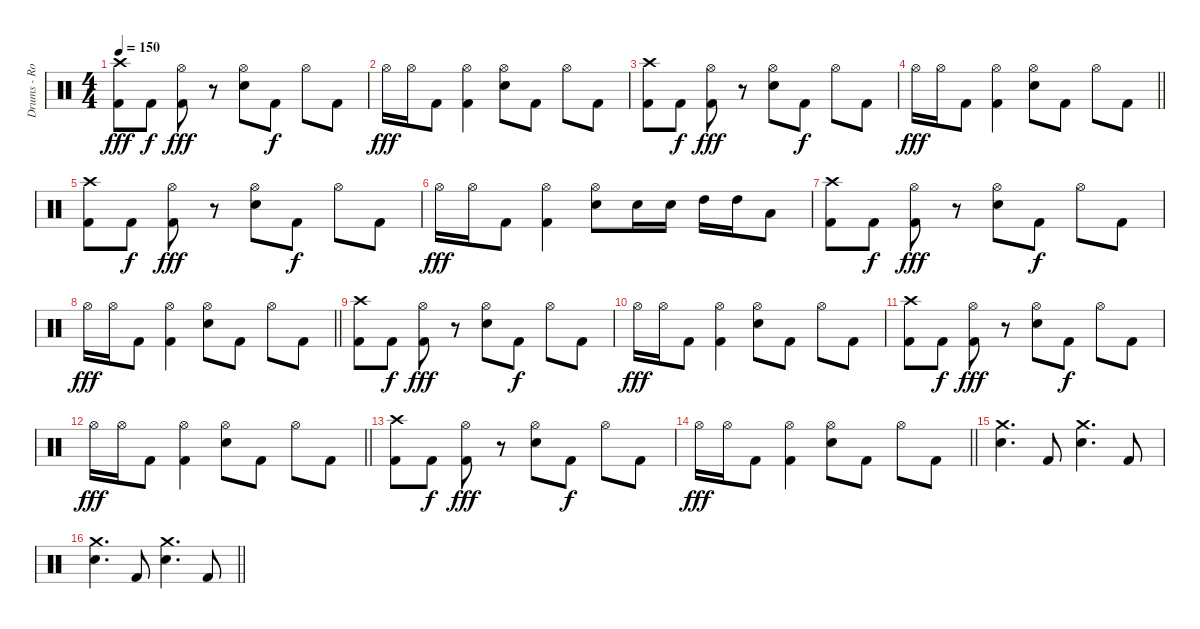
\track ("Drums - Rob Bourdon" "Drums - Ro") {instrument percussion}
\staff {score}
\articulation defaults
\ts (4 4)
\tempo 150
\clef neutral
\ks c
("Crash high (hit)" "Kick (hit) 2").8{dy fff} "Kick (hit) 2".8{dy f} ("Hi-Hat (open)" "Kick (hit) 2").8{dy fff} r.8 ("Hi-Hat (open)" "Snare (hit) 2").8 "Kick (hit) 2".8{dy f} "Hi-Hat (open)".8 "Kick (hit) 2".8 |
"Hi-Hat (open)".16{dy fff} "Hi-Hat (open)".16 "Kick (hit) 2".8 ("Hi-Hat (open)" "Kick (hit) 2").4 ("Hi-Hat (open)" "Snare (hit) 2").8 "Kick (hit) 2".8 "Hi-Hat (open)".8 "Kick (hit) 2".8 |
("Crash high (hit)" "Kick (hit) 2").8 "Kick (hit) 2".8{dy f} ("Hi-Hat (open)" "Kick (hit) 2").8{dy fff} r.8 ("Hi-Hat (open)" "Snare (hit) 2").8 "Kick (hit) 2".8{dy f} "Hi-Hat (open)".8 "Kick (hit) 2".8 |
\barLineRight lightlight "Hi-Hat (open)".16{dy fff} "Hi-Hat (open)".16 "Kick (hit) 2".8
("Hi-Hat (open)" "Kick (hit) 2").4 ("Hi-Hat (open)" "Snare (hit) 2").8 "Kick (hit) 2".8 "Hi-Hat (open)".8 "Kick (hit) 2".8 |
("Crash high (hit)" "Kick (hit) 2").8 "Kick (hit) 2".8{dy f} ("Hi-Hat (open)" "Kick (hit) 2").8{dy fff} r.8 ("Hi-Hat (open)" "Snare (hit) 2").8 "Kick (hit) 2".8{dy f} "Hi-Hat (open)".8 "Kick (hit) 2".8 |
"Hi-Hat (open)".16{dy fff} "Hi-Hat (open)".16 "Kick (hit) 2".8 ("Hi-Hat (open)" "Kick (hit) 2").4 ("Hi-Hat (open)" "Snare (hit) 2").8 "Snare (hit) 2".16 "Snare (hit) 2".16 "High Tom (hit)".16 "High Tom (hit)".16 "Low Tom (hit)".8 |
("Crash high (hit)" "Kick (hit) 2").8 "Kick (hit) 2".8{dy f} ("Hi-Hat (open)" "Kick (hit) 2").8{dy fff} r.8 ("Hi-Hat (open)" "Snare (hit) 2").8 "Kick (hit) 2".8{dy f} "Hi-Hat (open)".8 "Kick (hit) 2".8 |
\barLineRight lightlight "Hi-Hat (open)".16{dy fff} "Hi-Hat (open)".16 "Kick (hit) 2".8
("Hi-Hat (open)" "Kick (hit) 2").4 ("Hi-Hat (open)" "Snare (hit) 2").8 "Kick (hit) 2".8 "Hi-Hat (open)".8 "Kick (hit) 2".8 |
("Crash high (hit)" "Kick (hit) 2").8 "Kick (hit) 2".8{dy f} ("Hi-Hat (open)" "Kick (hit) 2").8{dy fff} r.8 ("Hi-Hat (open)" "Snare (hit) 2").8 "Kick (hit) 2".8{dy f} "Hi-Hat (open)".8 "Kick (hit) 2".8 |
"Hi-Hat (open)".16{dy fff} "Hi-Hat (open)".16 "Kick (hit) 2".8 ("Hi-Hat (open)" "Kick (hit) 2").4 ("Hi-Hat (open)" "Snare (hit) 2").8 "Kick (hit) 2".8 "Hi-Hat (open)".8 "Kick (hit) 2".8 |
("Crash high (hit)" "Kick (hit) 2").8 "Kick (hit) 2".8{dy f} ("Hi-Hat (open)" "Kick (hit) 2").8{dy fff} r.8 ("Hi-Hat (open)" "Snare (hit) 2").8 "Kick (hit) 2".8{dy f} "Hi-Hat (open)".8 "Kick (hit) 2".8 |
\barLineRight lightlight "Hi-Hat (open)".16{dy fff} "Hi-Hat (open)".16 "Kick (hit) 2".8
("Hi-Hat (open)" "Kick (hit) 2").4 ("Hi-Hat (open)" "Snare (hit) 2").8 "Kick (hit) 2".8 "Hi-Hat (open)".8 "Kick (hit) 2".8 |
("Crash high (hit)" "Kick (hit) 2").8 "Kick (hit) 2".8{dy f} ("Hi-Hat (open)" "Kick (hit) 2").8{dy fff} r.8 ("Hi-Hat (open)" "Snare (hit) 2").8 "Kick (hit) 2".8{dy f} "Hi-Hat (open)".8 "Kick (hit) 2".8 |
\barLineRight lightlight "Hi-Hat (open)".16{dy fff} "Hi-Hat (open)".16 "Kick (hit) 2".8
("Hi-Hat (open)" "Kick (hit) 2").4 ("Hi-Hat (open)" "Snare (hit) 2").8 "Kick (hit) 2".8 "Hi-Hat (open)".8 "Kick (hit) 2".8 |
("Crash medium (hit)" "Snare (hit) 2").4{d} "Kick (hit) 2".8 ("Crash medium (hit)" "Snare (hit) 2").4{d} "Kick (hit) 2".8 |
\barLineRight lightlight
("Crash medium (hit)" "Snare (hit) 2").4{d} "Kick (hit) 2".8 ("Crash medium (hit)" "Snare (hit) 2").4{d} "Kick (hit) 2".8
